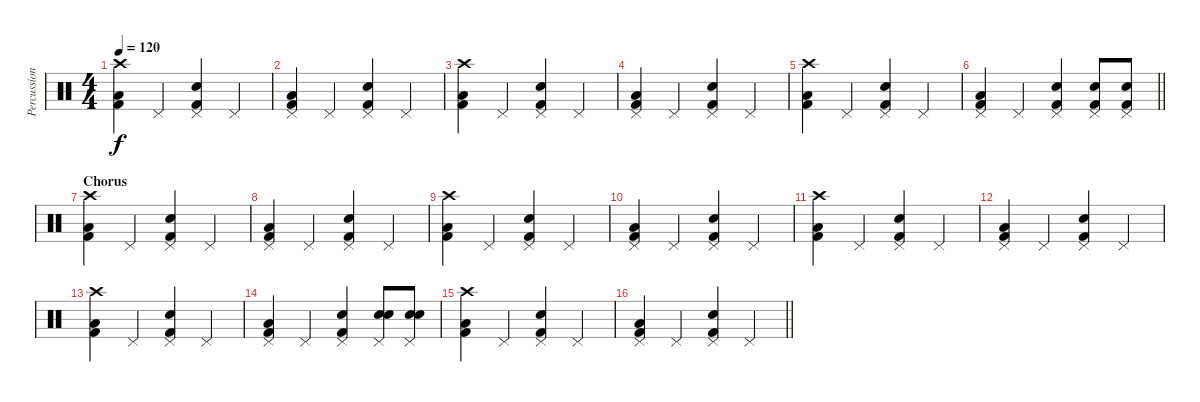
\track ("Percussion" "Percussion") {instrument percussion}
\staff {score}
\articulation defaults
\ts (4 4)
\tempo 120
\clef neutral
\ks c
("Crash high (hit)" "Low Floor Tom (hit)" "Kick (hit) 2").4{dy f} "Pedal Hi-Hat (hit)".4 ("Pedal Hi-Hat (hit)" "Snare (hit) 2" "Kick (hit) 2").4 "Pedal Hi-Hat (hit)".4 |
("Pedal Hi-Hat (hit)" "Low Floor Tom (hit)" "Kick (hit) 2").4 "Pedal Hi-Hat (hit)".4 ("Pedal Hi-Hat (hit)" "Snare (hit) 2" "Kick (hit) 2").4 "Pedal Hi-Hat (hit)".4 |
("Crash high (hit)" "Low Floor Tom (hit)" "Kick (hit) 2").4 "Pedal Hi-Hat (hit)".4 ("Pedal Hi-Hat (hit)" "Snare (hit) 2" "Kick (hit) 2").4 "Pedal Hi-Hat (hit)".4 |
("Pedal Hi-Hat (hit)" "Low Floor Tom (hit)" "Kick (hit) 2").4 "Pedal Hi-Hat (hit)".4 ("Pedal Hi-Hat (hit)" "Snare (hit) 2" "Kick (hit) 2").4 "Pedal Hi-Hat (hit)".4 |
("Crash high (hit)" "Low Floor Tom (hit)" "Kick (hit) 2").4 "Pedal Hi-Hat (hit)".4 ("Pedal Hi-Hat (hit)" "Snare (hit) 2" "Kick (hit) 2").4 "Pedal Hi-Hat (hit)".4 |
\barLineRight lightlight
("Pedal Hi-Hat (hit)" "Low Floor Tom (hit)" "Kick (hit) 2").4 "Pedal Hi-Hat (hit)".4 ("Pedal Hi-Hat (hit)" "Snare (hit) 2" "Kick (hit) 2").4 ("Pedal Hi-Hat (hit)" "Snare (hit) 2" "Kick (hit) 2").8 ("Pedal Hi-Hat (hit)" "Snare (hit) 2" "Kick (hit) 2").8 |
\section ("" "Chorus")
("Crash high (hit)" "Low Floor Tom (hit)" "Kick (hit) 2").4 "Pedal Hi-Hat (hit)".4 ("Pedal Hi-Hat (hit)" "Snare (hit) 2" "Kick (hit) 2").4 "Pedal Hi-Hat (hit)".4 |
("Pedal Hi-Hat (hit)" "Low Floor Tom (hit)" "Kick (hit) 2").4 "Pedal Hi-Hat (hit)".4 ("Pedal Hi-Hat (hit)" "Snare (hit) 2" "Kick (hit) 2").4 "Pedal Hi-Hat (hit)".4 |
("Crash high (hit)" "Low Floor Tom (hit)" "Kick (hit) 2").4 "Pedal Hi-Hat (hit)".4 ("Pedal Hi-Hat (hit)" "Snare (hit) 2" "Kick (hit) 2").4 "Pedal Hi-Hat (hit)".4 |
("Pedal Hi-Hat (hit)" "Low Floor Tom (hit)" "Kick (hit) 2").4 "Pedal Hi-Hat (hit)".4 ("Pedal Hi-Hat (hit)" "Snare (hit) 2" "Kick (hit) 2").4 "Pedal Hi-Hat (hit)".4 |
("Crash high (hit)" "Low Floor Tom (hit)" "Kick (hit) 2").4 "Pedal Hi-Hat (hit)".4 ("Pedal Hi-Hat (hit)" "Snare (hit) 2" "Kick (hit) 2").4 "Pedal Hi-Hat (hit)".4 |
("Pedal Hi-Hat (hit)" "Low Floor Tom (hit)" "Kick (hit) 2").4 "Pedal Hi-Hat (hit)".4 ("Pedal Hi-Hat (hit)" "Snare (hit) 2" "Kick (hit) 2").4 "Pedal Hi-Hat (hit)".4 |
("Crash high (hit)" "Low Floor Tom (hit)" "Kick (hit) 2").4 "Pedal Hi-Hat (hit)".4 ("Pedal Hi-Hat (hit)" "Snare (hit) 2" "Kick (hit) 2").4 "Pedal Hi-Hat (hit)".4 |
("Pedal Hi-Hat (hit)" "Low Floor Tom (hit)" "Kick (hit) 2").4 "Pedal Hi-Hat (hit)".4 ("Pedal Hi-Hat (hit)" "Snare (hit) 2" "Kick (hit) 2").4 ("Pedal Hi-Hat (hit)" "Snare (hit) 2" "Snare (hit)").8 ("Pedal Hi-Hat (hit)" "Snare (hit) 2" "Snare (hit)").8 |
("Crash high (hit)" "Low Floor Tom (hit)" "Kick (hit) 2").4 "Pedal Hi-Hat (hit)".4 ("Pedal Hi-Hat (hit)" "Snare (hit) 2" "Kick (hit) 2").4 "Pedal Hi-Hat (hit)".4 |
\barLineRight lightlight
("Pedal Hi-Hat (hit)" "Low Floor Tom (hit)" "Kick (hit) 2").4 "Pedal Hi-Hat (hit)".4 ("Pedal Hi-Hat (hit)" "Snare (hit) 2" "Kick (hit) 2").4 "Pedal Hi-Hat (hit)".4
